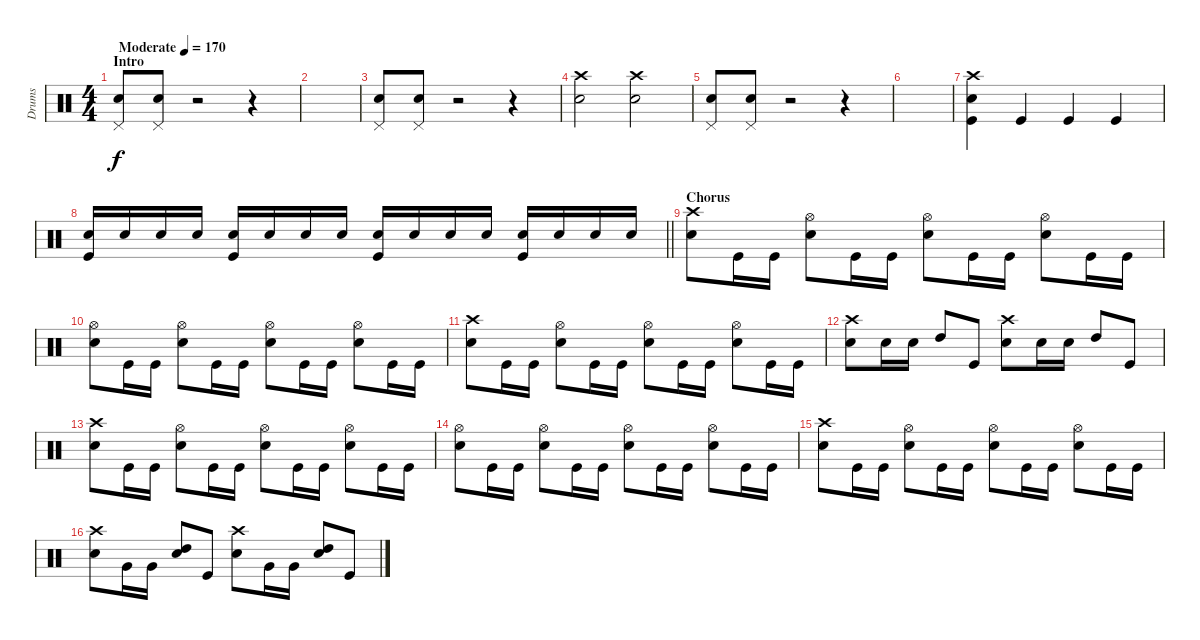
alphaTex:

\track ("Drums" "Drums") {instrument percussion}
\staff {score}
\articulation defaults
\ts (4 4)
\section ("" "Intro")
\tempo (170 "Moderate")
\clef neutral
\ks c
("Pedal Hi-Hat (hit)" "Snare (hit) 2").8{dy f} ("Pedal Hi-Hat (hit)" "Snare (hit) 2").8 r.2 r.4 |
|
("Pedal Hi-Hat (hit)" "Snare (hit) 2").8 ("Pedal Hi-Hat (hit)" "Snare (hit) 2").8 r.2 r.4 |
("Crash high (hit)" "Snare (hit) 2").2 ("Crash high (hit)" "Snare (hit) 2").2 |
("Pedal Hi-Hat (hit)" "Snare (hit) 2").8 ("Pedal Hi-Hat (hit)" "Snare (hit) 2").8 r.2 r.4 |
|
("Crash high (hit)" "Electric Snare (hit)" "Kick (hit)").4 "Kick (hit)".4 "Kick (hit)".4 "Kick (hit)".4 |
\barLineRight lightlight
("Snare (hit) 2" "Kick (hit)").16 "Snare (hit) 2".16 "Snare (hit) 2".16 "Snare (hit) 2".16 ("Snare (hit) 2" "Kick (hit)").16 "Snare (hit) 2".16 "Snare (hit) 2".16 "Snare (hit) 2".16 ("Snare (hit) 2" "Kick (hit)").16 "Snare (hit) 2".16 "Snare (hit) 2".16 "Snare (hit) 2".16 ("Snare (hit) 2" "Kick (hit)").16 "Snare (hit) 2".16 "Snare (hit) 2".16 "Snare (hit) 2".16 |
\section ("" "Chorus")
("Crash high (hit)" "Snare (hit) 2").8 "Kick (hit)".16 "Kick (hit)".16 ("Hi-Hat (open)" "Snare (hit) 2").8 "Kick (hit)".16 "Kick (hit)".16 ("Hi-Hat (open)" "Snare (hit) 2").8 "Kick (hit)".16 "Kick (hit)".16 ("Hi-Hat (open)" "Snare (hit) 2").8 "Kick (hit)".16 "Kick (hit)".16 |
("Hi-Hat (open)" "Snare (hit) 2").8 "Kick (hit)".16 "Kick (hit)".16 ("Hi-Hat (open)" "Snare (hit) 2").8 "Kick (hit)".16 "Kick (hit)".16 ("Hi-Hat (open)" "Snare (hit) 2").8 "Kick (hit)".16 "Kick (hit)".16 ("Hi-Hat (open)" "Snare (hit) 2").8 "Kick (hit)".16 "Kick (hit)".16 |
("Crash high (hit)" "Snare (hit) 2").8 "Kick (hit)".16 "Kick (hit)".16 ("Hi-Hat (open)" "Snare (hit) 2").8 "Kick (hit)".16 "Kick (hit)".16 ("Hi-Hat (open)" "Snare (hit) 2").8 "Kick (hit)".16 "Kick (hit)".16 ("Hi-Hat (open)" "Snare (hit) 2").8 "Kick (hit)".16 "Kick (hit)".16 |
("Crash high (hit)" "Snare (hit) 2").8 "Snare (hit) 2".16 "Snare (hit) 2".16 "High Tom (hit)".8 "Kick (hit)".8 ("Crash high (hit)" "Snare (hit) 2").8 "Snare (hit) 2".16 "Snare (hit) 2".16 "High Tom (hit)".8 "Kick (hit)".8 |
("Crash high (hit)" "Snare (hit) 2").8 "Kick (hit)".16 "Kick (hit)".16 ("Hi-Hat (open)" "Snare (hit) 2").8 "Kick (hit)".16 "Kick (hit)".16 ("Hi-Hat (open)" "Snare (hit) 2").8 "Kick (hit)".16 "Kick (hit)".16 ("Hi-Hat (open)" "Snare (hit) 2").8 "Kick (hit)".16 "Kick (hit)".16 |
("Hi-Hat (open)" "Snare (hit) 2").8 "Kick (hit)".16 "Kick (hit)".16 ("Hi-Hat (open)" "Snare (hit) 2").8 "Kick (hit)".16 "Kick (hit)".16 ("Hi-Hat (open)" "Snare (hit) 2").8 "Kick (hit)".16 "Kick (hit)".16 ("Hi-Hat (open)" "Snare (hit) 2").8 "Kick (hit)".16 "Kick (hit)".16 |
("Crash high (hit)" "Snare (hit) 2").8 "Kick (hit)".16 "Kick (hit)".16 ("Hi-Hat (open)" "Snare (hit) 2").8 "Kick (hit)".16 "Kick (hit)".16 ("Hi-Hat (open)" "Snare (hit) 2").8 "Kick (hit)".16 "Kick (hit)".16 ("Hi-Hat (open)" "Snare (hit) 2").8 "Kick (hit)".16 "Kick (hit)".16 |
("Crash high (hit)" "Snare (hit) 2").8 "Very Low Tom (hit)".16 "Very Low Tom (hit)".16 ("High Tom (hit)" "Snare (hit) 2").8 "Kick (hit)".8 ("Crash high (hit)" "Snare (hit) 2").8 "Very Low Tom (hit)".16 "Very Low Tom (hit)".16 ("High Tom (hit)" "Snare (hit) 2").8 "Kick (hit)".8
